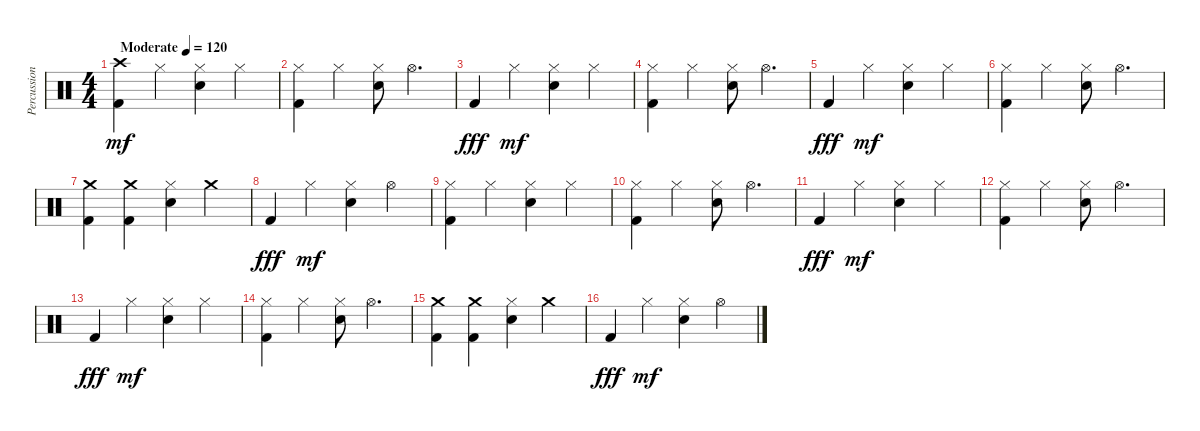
\track ("Percussioni" "Percussion") {instrument percussion}
\staff {score}
\articulation defaults
\ts (4 4)
\tempo (120 "Moderate")
\clef neutral
\ks c
("Crash high (hit)" "Kick (hit) 2").4{dy mf} "Hi-Hat (closed)".4 ("Hi-Hat (closed)" "Snare (hit) 2").4 "Hi-Hat (closed)".4 |
("Hi-Hat (closed)" "Kick (hit) 2").4 "Hi-Hat (closed)".4 ("Hi-Hat (closed)" "Snare (hit) 2").8 "Hi-Hat (open)".4{d} |
"Kick (hit) 2".4{dy fff} "Hi-Hat (closed)".4{dy mf} ("Hi-Hat (closed)" "Snare (hit) 2").4 "Hi-Hat (closed)".4 |
("Hi-Hat (closed)" "Kick (hit) 2").4 "Hi-Hat (closed)".4 ("Hi-Hat (closed)" "Snare (hit) 2").8 "Hi-Hat (open)".4{d} |
"Kick (hit) 2".4{dy fff} "Hi-Hat (closed)".4{dy mf} ("Hi-Hat (closed)" "Snare (hit) 2").4 "Hi-Hat (closed)".4 |
("Hi-Hat (closed)" "Kick (hit) 2").4 "Hi-Hat (closed)".4 ("Hi-Hat (closed)" "Snare (hit) 2").8 "Hi-Hat (open)".4{d} |
("Crash medium (hit)" "Kick (hit) 2").4 ("Crash medium (hit)" "Kick (hit) 2").4 ("Hi-Hat (closed)" "Snare (hit) 2").4 "Crash medium (hit)".4 |
"Kick (hit) 2".4{dy fff} "Hi-Hat (closed)".4{dy mf} ("Hi-Hat (closed)" "Snare (hit) 2").4 "Hi-Hat (open)".4 |
("Hi-Hat (closed)" "Kick (hit) 2").4 "Hi-Hat (closed)".4 ("Hi-Hat (closed)" "Snare (hit) 2").4 "Hi-Hat (closed)".4 |
("Hi-Hat (closed)" "Kick (hit) 2").4 "Hi-Hat (closed)".4 ("Hi-Hat (closed)" "Snare (hit) 2").8 "Hi-Hat (open)".4{d} |
"Kick (hit) 2".4{dy fff} "Hi-Hat (closed)".4{dy mf} ("Hi-Hat (closed)" "Snare (hit) 2").4 "Hi-Hat (closed)".4 |
("Hi-Hat (closed)" "Kick (hit) 2").4 "Hi-Hat (closed)".4 ("Hi-Hat (closed)" "Snare (hit) 2").8 "Hi-Hat (open)".4{d} |
"Kick (hit) 2".4{dy fff} "Hi-Hat (closed)".4{dy mf} ("Hi-Hat (closed)" "Snare (hit) 2").4 "Hi-Hat (closed)".4 |
("Hi-Hat (closed)" "Kick (hit) 2").4 "Hi-Hat (closed)".4 ("Hi-Hat (closed)" "Snare (hit) 2").8 "Hi-Hat (open)".4{d} |
("Crash medium (hit)" "Kick (hit) 2").4 ("Crash medium (hit)" "Kick (hit) 2").4 ("Hi-Hat (closed)" "Snare (hit) 2").4 "Crash medium (hit)".4 |
"Kick (hit) 2".4{dy fff} "Hi-Hat (closed)".4{dy mf} ("Hi-Hat (closed)" "Snare (hit) 2").4 "Hi-Hat (open)".4
